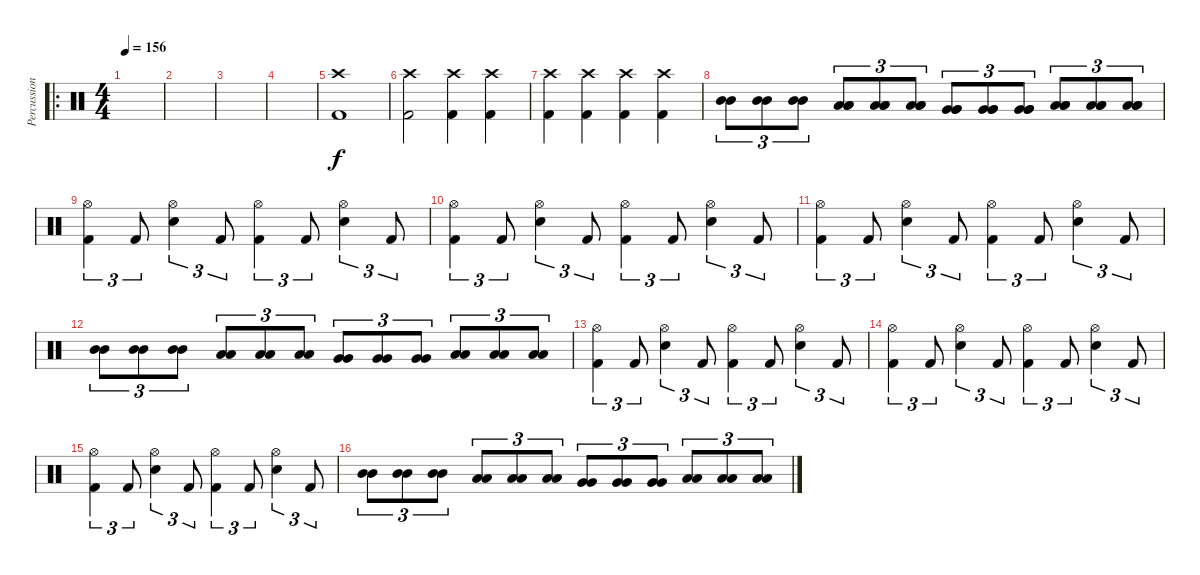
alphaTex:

\track ("Percussion" "Percussion") {instrument percussion}
\staff {score}
\articulation defaults
\ro
\ts (4 4)
\tempo 156
\clef neutral
\ks c
|
|
|
|
("Crash high (hit)" "Kick (hit) 2").1 |
("Crash high (hit)" "Kick (hit) 2").2 ("Crash high (hit)" "Kick (hit) 2").4 ("Crash high (hit)" "Kick (hit) 2").4 |
("Crash high (hit)" "Kick (hit) 2").4 ("Crash high (hit)" "Kick (hit) 2").4 ("Crash high (hit)" "Kick (hit) 2").4 ("Crash high (hit)" "Kick (hit) 2").4 |
("Mid Tom (hit)" "Mid Tom (hit)").8{tu (3 2)} ("Mid Tom (hit)" "Mid Tom (hit)").8{tu (3 2)} ("Mid Tom (hit)" "Mid Tom (hit)").8{tu (3 2)} ("Low Tom (hit)" "Low Tom (hit)" "Low Tom (hit)").8{tu (3 2)} ("Low Tom (hit)" "Low Tom (hit)" "Low Tom (hit)").8{tu (3 2)} ("Low Tom (hit)" "Low Tom (hit)" "Low Tom (hit)").8{tu (3 2)} ("Very Low Tom (hit)" "Very Low Tom (hit)" "Very Low Tom (hit)").8{tu (3 2)} ("Very Low Tom (hit)" "Very Low Tom (hit)" "Very Low Tom (hit)").8{tu (3 2)} ("Very Low Tom (hit)" "Very Low Tom (hit)" "Very Low Tom (hit)").8{tu (3 2)} ("Low Floor Tom (hit)" "Low Floor Tom (hit)" "Low Floor Tom (hit)").8{tu (3 2)} ("Low Floor Tom (hit)" "Low Floor Tom (hit)" "Low Floor Tom (hit)").8{tu (3 2)} ("Low Floor Tom (hit)" "Low Floor Tom (hit)" "Low Floor Tom (hit)").8{tu (3 2)} |
("Hi-Hat (open)" "Kick (hit) 2").4{tu (3 2)} "Kick (hit) 2".8{tu (3 2)} ("Electric Snare (hit)" "Hi-Hat (open)").4{tu (3 2)} "Kick (hit) 2".8{tu (3 2)} ("Hi-Hat (open)" "Kick (hit) 2").4{tu (3 2)} "Kick (hit) 2".8{tu (3 2)} ("Electric Snare (hit)" "Hi-Hat (open)").4{tu (3 2)} "Kick (hit) 2".8{tu (3 2)} |
("Hi-Hat (open)" "Kick (hit) 2").4{tu (3 2)} "Kick (hit) 2".8{tu (3 2)} ("Electric Snare (hit)" "Hi-Hat (open)").4{tu (3 2)} "Kick (hit) 2".8{tu (3 2)} ("Hi-Hat (open)" "Kick (hit) 2").4{tu (3 2)} "Kick (hit) 2".8{tu (3 2)} ("Electric Snare (hit)" "Hi-Hat (open)").4{tu (3 2)} "Kick (hit) 2".8{tu (3 2)} |
("Hi-Hat (open)" "Kick (hit) 2").4{tu (3 2)} "Kick (hit) 2".8{tu (3 2)} ("Electric Snare (hit)" "Hi-Hat (open)").4{tu (3 2)} "Kick (hit) 2".8{tu (3 2)} ("Hi-Hat (open)" "Kick (hit) 2").4{tu (3 2)} "Kick (hit) 2".8{tu (3 2)} ("Electric Snare (hit)" "Hi-Hat (open)").4{tu (3 2)} "Kick (hit) 2".8{tu (3 2)} |
("Mid Tom (hit)" "Mid Tom (hit)").8{tu (3 2)} ("Mid Tom (hit)" "Mid Tom (hit)").8{tu (3 2)} ("Mid Tom (hit)" "Mid Tom (hit)").8{tu (3 2)} ("Low Tom (hit)" "Low Tom (hit)").8{tu (3 2)} ("Low Tom (hit)" "Low Tom (hit)").8{tu (3 2)} ("Low Tom (hit)" "Low Tom (hit)").8{tu (3 2)} ("Very Low Tom (hit)" "Very Low Tom (hit)").8{tu (3 2)} ("Very Low Tom (hit)" "Very Low Tom (hit)").8{tu (3 2)} ("Very Low Tom (hit)" "Very Low Tom (hit)").8{tu (3 2)} ("Low Floor Tom (hit)" "Low Floor Tom (hit)").8{tu (3 2)} ("Low Floor Tom (hit)" "Low Floor Tom (hit)").8{tu (3 2)} ("Low Floor Tom (hit)" "Low Floor Tom (hit)").8{tu (3 2)} |
("Hi-Hat (open)" "Kick (hit) 2").4{tu (3 2)} "Kick (hit) 2".8{tu (3 2)} ("Electric Snare (hit)" "Hi-Hat (open)").4{tu (3 2)} "Kick (hit) 2".8{tu (3 2)} ("Hi-Hat (open)" "Kick (hit) 2").4{tu (3 2)} "Kick (hit) 2".8{tu (3 2)} ("Electric Snare (hit)" "Hi-Hat (open)").4{tu (3 2)} "Kick (hit) 2".8{tu (3 2)} |
("Hi-Hat (open)" "Kick (hit) 2").4{tu (3 2)} "Kick (hit) 2".8{tu (3 2)} ("Electric Snare (hit)" "Hi-Hat (open)").4{tu (3 2)} "Kick (hit) 2".8{tu (3 2)} ("Hi-Hat (open)" "Kick (hit) 2").4{tu (3 2)} "Kick (hit) 2".8{tu (3 2)} ("Electric Snare (hit)" "Hi-Hat (open)").4{tu (3 2)} "Kick (hit) 2".8{tu (3 2)} |
("Hi-Hat (open)" "Kick (hit) 2").4{tu (3 2)} "Kick (hit) 2".8{tu (3 2)} ("Electric Snare (hit)" "Hi-Hat (open)").4{tu (3 2)} "Kick (hit) 2".8{tu (3 2)} ("Hi-Hat (open)" "Kick (hit) 2").4{tu (3 2)} "Kick (hit) 2".8{tu (3 2)} ("Electric Snare (hit)" "Hi-Hat (open)").4{tu (3 2)} "Kick (hit) 2".8{tu (3 2)} |
("Mid Tom (hit)" "Mid Tom (hit)").8{tu (3 2)} ("Mid Tom (hit)" "Mid Tom (hit)").8{tu (3 2)} ("Mid Tom (hit)" "Mid Tom (hit)").8{tu (3 2)} ("Low Tom (hit)" "Low Tom (hit)").8{tu (3 2)} ("Low Tom (hit)" "Low Tom (hit)").8{tu (3 2)} ("Low Tom (hit)" "Low Tom (hit)").8{tu (3 2)} ("Very Low Tom (hit)" "Very Low Tom (hit)").8{tu (3 2)} ("Very Low Tom (hit)" "Very Low Tom (hit)").8{tu (3 2)} ("Very Low Tom (hit)" "Very Low Tom (hit)").8{tu (3 2)} ("Low Floor Tom (hit)" "Low Floor Tom (hit)").8{tu (3 2)} ("Low Floor Tom (hit)" "Low Floor Tom (hit)").8{tu (3 2)} ("Low Floor Tom (hit)" "Low Floor Tom (hit)").8{tu (3 2)}
